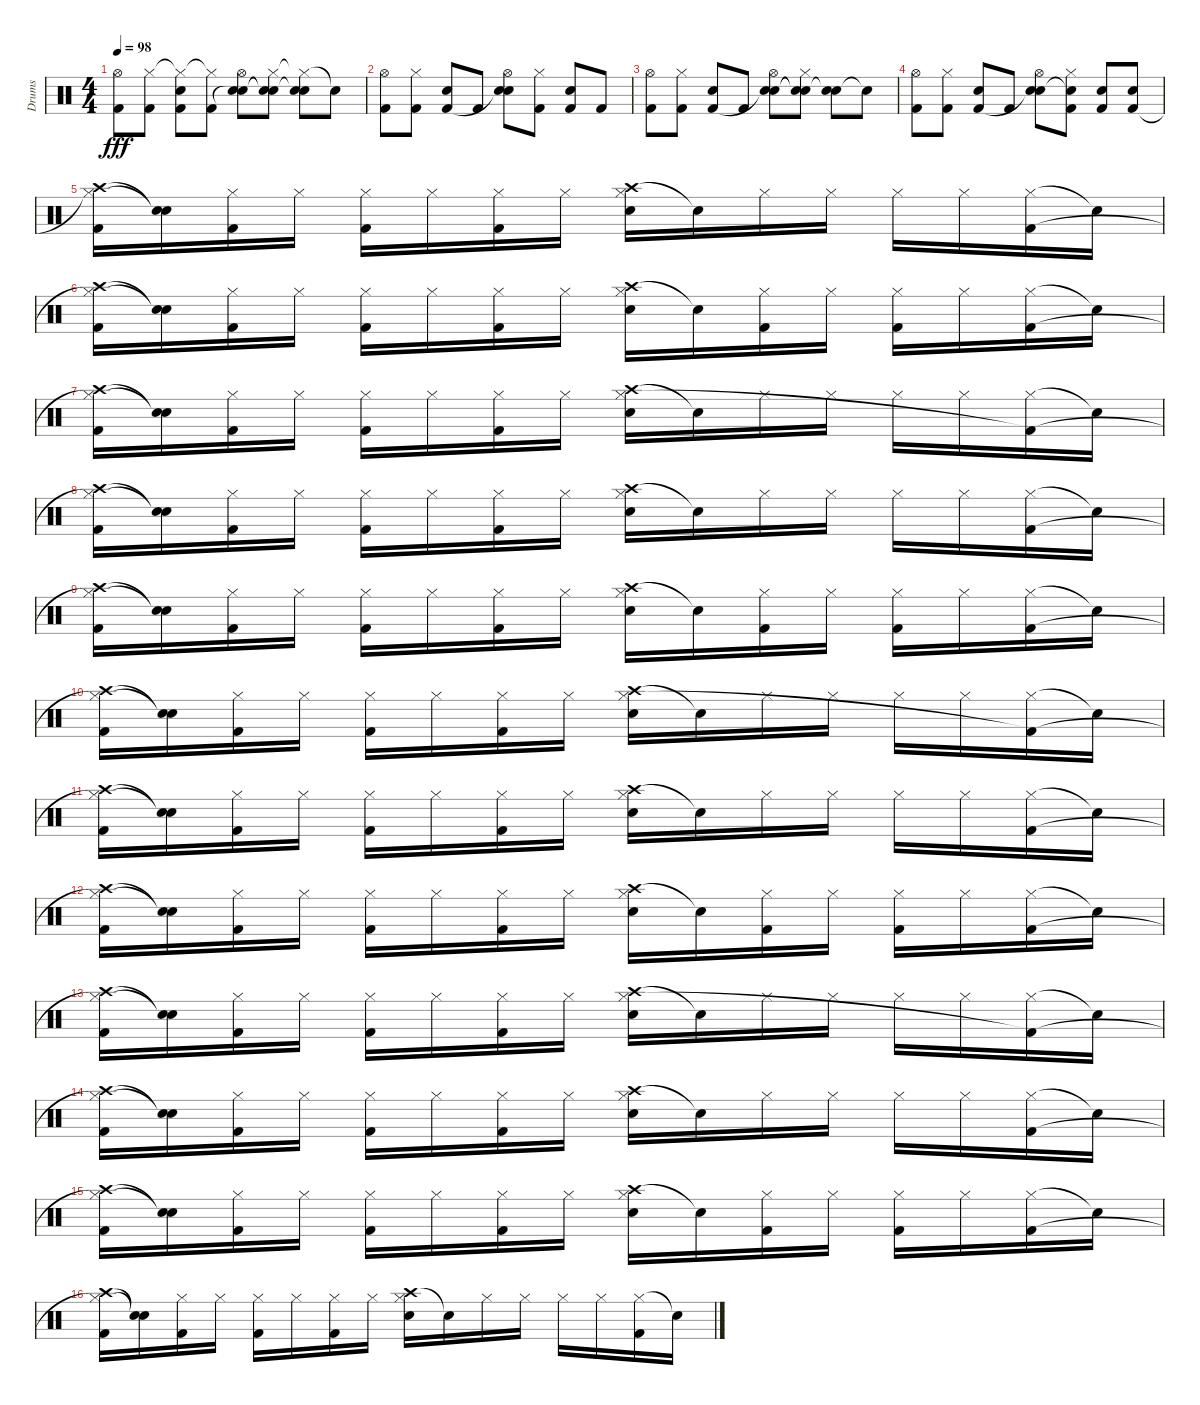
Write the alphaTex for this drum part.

\track ("Drums" "Drums") {instrument percussion}
\staff {score}
\articulation defaults
\ts (4 4)
\tempo 98
\clef neutral
\ks c
("Hi-Hat (open)" "Kick (hit) 2").8{dy fff} ("Hi-Hat (closed)" "Kick (hit) 2").8 ("Hi-Hat (closed)"{t} "Hand Clap (hit)" "Kick (hit) 2").8 ("Hi-Hat (closed)"{t} "Kick (hit) 2").8 ("Hi-Hat (open)" "Hand Clap (hit)"{t} "Electric Snare (hit)").8 ("Hi-Hat (closed)" "Hand Clap (hit)"{t} "Electric Snare (hit)"{t}).8 ("Hi-Hat (closed)"{t} "Hand Clap (hit)" "Snare (hit)"{t}).8 "Snare (hit)"{t}.8 |
("Hi-Hat (open)" "Kick (hit) 2").8 ("Hi-Hat (closed)" "Kick (hit) 2").8 ("Hand Clap (hit)" "Kick (hit) 2").8 "Kick (hit) 2".8 ("Hi-Hat (open)" "Hand Clap (hit)"{t} "Electric Snare (hit)").8 ("Hi-Hat (closed)" "Kick (hit) 2").8 ("Hand Clap (hit)" "Kick (hit) 2").8 "Kick (hit) 2".8 |
("Hi-Hat (open)" "Kick (hit) 2").8 ("Hi-Hat (closed)" "Kick (hit) 2").8 ("Hand Clap (hit)" "Kick (hit) 2").8 "Kick (hit) 2".8 ("Hi-Hat (open)" "Hand Clap (hit)"{t} "Electric Snare (hit)").8 ("Hi-Hat (closed)" "Hand Clap (hit)"{t} "Electric Snare (hit)"{t}).8 ("Hand Clap (hit)" "Snare (hit)"{t}).8 "Snare (hit)"{t}.8 |
("Hi-Hat (open)" "Kick (hit) 2").8 ("Hi-Hat (closed)" "Kick (hit) 2").8 ("Hand Clap (hit)" "Kick (hit) 2").8 "Kick (hit) 2".8 ("Hi-Hat (open)" "Hand Clap (hit)"{t} "Electric Snare (hit)").8 ("Hi-Hat (closed)" "Hand Clap (hit)"{t} "Kick (hit) 2").8 ("Hand Clap (hit)" "Kick (hit) 2").8 ("Hand Clap (hit)" "Kick (hit) 2").8 |
("Crash high (hit)" "Hi-Hat (closed)"{t} "Kick (hit) 2").16 ("Snare (hit)"{t} "Snare (hit)"{t}).16 ("Hi-Hat (closed)" "Kick (hit) 2").16 "Hi-Hat (closed)".16 ("Hi-Hat (closed)" "Kick (hit) 2").16 "Hi-Hat (closed)".16 ("Hi-Hat (closed)" "Kick (hit) 2").16 "Hi-Hat (closed)".16 ("Crash high (hit)" "Hi-Hat (closed)" "Electric Snare (hit)").16 "Snare (hit)"{t}.16 "Hi-Hat (closed)".16 "Hi-Hat (closed)".16 "Hi-Hat (closed)".16 "Hi-Hat (closed)".16 ("Hi-Hat (closed)" "Kick (hit) 2").16 "Snare (hit)"{t}.16 |
("Crash high (hit)" "Hi-Hat (closed)"{t} "Kick (hit) 2").16 ("Snare (hit)"{t} "Snare (hit)"{t}).16 ("Hi-Hat (closed)" "Kick (hit) 2").16 "Hi-Hat (closed)".16 ("Hi-Hat (closed)" "Kick (hit) 2").16 "Hi-Hat (closed)".16 ("Hi-Hat (closed)" "Kick (hit) 2").16 "Hi-Hat (closed)".16 ("Crash high (hit)" "Hi-Hat (closed)" "Electric Snare (hit)").16 "Snare (hit)"{t}.16 ("Hi-Hat (closed)" "Kick (hit) 2").16 "Hi-Hat (closed)".16 ("Hi-Hat (closed)" "Kick (hit) 2").16 "Hi-Hat (closed)".16 ("Hi-Hat (closed)" "Kick (hit) 2").16 "Snare (hit)"{t}.16 |
("Crash high (hit)" "Hi-Hat (closed)"{t} "Kick (hit) 2").16 ("Snare (hit)"{t} "Snare (hit)"{t}).16 ("Hi-Hat (closed)" "Kick (hit) 2").16 "Hi-Hat (closed)".16 ("Hi-Hat (closed)" "Kick (hit) 2").16 "Hi-Hat (closed)".16 ("Hi-Hat (closed)" "Kick (hit) 2").16 "Hi-Hat (closed)".16 ("Crash high (hit)" "Hi-Hat (closed)" "Electric Snare (hit)").16 "Snare (hit)"{t}.16 "Hi-Hat (closed)".16 "Hi-Hat (closed)".16 "Hi-Hat (closed)".16 "Hi-Hat (closed)".16 ("Hi-Hat (closed)" "Kick (hit) 2"{t}).16 "Snare (hit)"{t}.16 |
("Crash high (hit)" "Hi-Hat (closed)"{t} "Kick (hit) 2").16 ("Snare (hit)"{t} "Snare (hit)"{t}).16 ("Hi-Hat (closed)" "Kick (hit) 2").16 "Hi-Hat (closed)".16 ("Hi-Hat (closed)" "Kick (hit) 2").16 "Hi-Hat (closed)".16 ("Hi-Hat (closed)" "Kick (hit) 2").16 "Hi-Hat (closed)".16 ("Crash high (hit)" "Hi-Hat (closed)" "Electric Snare (hit)").16 "Snare (hit)"{t}.16 "Hi-Hat (closed)".16 "Hi-Hat (closed)".16 "Hi-Hat (closed)".16 "Hi-Hat (closed)".16 ("Hi-Hat (closed)" "Kick (hit) 2").16 "Snare (hit)"{t}.16 |
("Crash high (hit)" "Hi-Hat (closed)"{t} "Kick (hit) 2").16 ("Snare (hit)"{t} "Snare (hit)"{t}).16 ("Hi-Hat (closed)" "Kick (hit) 2").16 "Hi-Hat (closed)".16 ("Hi-Hat (closed)" "Kick (hit) 2").16 "Hi-Hat (closed)".16 ("Hi-Hat (closed)" "Kick (hit) 2").16 "Hi-Hat (closed)".16 ("Crash high (hit)" "Hi-Hat (closed)" "Electric Snare (hit)").16 "Snare (hit)"{t}.16 ("Hi-Hat (closed)" "Kick (hit) 2").16 "Hi-Hat (closed)".16 ("Hi-Hat (closed)" "Kick (hit) 2").16 "Hi-Hat (closed)".16 ("Hi-Hat (closed)" "Kick (hit) 2").16 "Snare (hit)"{t}.16 |
("Crash high (hit)" "Hi-Hat (closed)"{t} "Kick (hit) 2").16 ("Snare (hit)"{t} "Snare (hit)"{t}).16 ("Hi-Hat (closed)" "Kick (hit) 2").16 "Hi-Hat (closed)".16 ("Hi-Hat (closed)" "Kick (hit) 2").16 "Hi-Hat (closed)".16 ("Hi-Hat (closed)" "Kick (hit) 2").16 "Hi-Hat (closed)".16 ("Crash high (hit)" "Hi-Hat (closed)" "Electric Snare (hit)").16 "Snare (hit)"{t}.16 "Hi-Hat (closed)".16 "Hi-Hat (closed)".16 "Hi-Hat (closed)".16 "Hi-Hat (closed)".16 ("Hi-Hat (closed)" "Kick (hit) 2"{t}).16 "Snare (hit)"{t}.16 |
("Crash high (hit)" "Hi-Hat (closed)"{t} "Kick (hit) 2").16 ("Snare (hit)"{t} "Snare (hit)"{t}).16 ("Hi-Hat (closed)" "Kick (hit) 2").16 "Hi-Hat (closed)".16 ("Hi-Hat (closed)" "Kick (hit) 2").16 "Hi-Hat (closed)".16 ("Hi-Hat (closed)" "Kick (hit) 2").16 "Hi-Hat (closed)".16 ("Crash high (hit)" "Hi-Hat (closed)" "Electric Snare (hit)").16 "Snare (hit)"{t}.16 "Hi-Hat (closed)".16 "Hi-Hat (closed)".16 "Hi-Hat (closed)".16 "Hi-Hat (closed)".16 ("Hi-Hat (closed)" "Kick (hit) 2").16 "Snare (hit)"{t}.16 |
("Crash high (hit)" "Hi-Hat (closed)"{t} "Kick (hit) 2").16 ("Snare (hit)"{t} "Snare (hit)"{t}).16 ("Hi-Hat (closed)" "Kick (hit) 2").16 "Hi-Hat (closed)".16 ("Hi-Hat (closed)" "Kick (hit) 2").16 "Hi-Hat (closed)".16 ("Hi-Hat (closed)" "Kick (hit) 2").16 "Hi-Hat (closed)".16 ("Crash high (hit)" "Hi-Hat (closed)" "Electric Snare (hit)").16 "Snare (hit)"{t}.16 ("Hi-Hat (closed)" "Kick (hit) 2").16 "Hi-Hat (closed)".16 ("Hi-Hat (closed)" "Kick (hit) 2").16 "Hi-Hat (closed)".16 ("Hi-Hat (closed)" "Kick (hit) 2").16 "Snare (hit)"{t}.16 |
("Crash high (hit)" "Hi-Hat (closed)"{t} "Kick (hit) 2").16 ("Snare (hit)"{t} "Snare (hit)"{t}).16 ("Hi-Hat (closed)" "Kick (hit) 2").16 "Hi-Hat (closed)".16 ("Hi-Hat (closed)" "Kick (hit) 2").16 "Hi-Hat (closed)".16 ("Hi-Hat (closed)" "Kick (hit) 2").16 "Hi-Hat (closed)".16 ("Crash high (hit)" "Hi-Hat (closed)" "Electric Snare (hit)").16 "Snare (hit)"{t}.16 "Hi-Hat (closed)".16 "Hi-Hat (closed)".16 "Hi-Hat (closed)".16 "Hi-Hat (closed)".16 ("Hi-Hat (closed)" "Kick (hit) 2"{t}).16 "Snare (hit)"{t}.16 |
("Crash high (hit)" "Hi-Hat (closed)"{t} "Kick (hit) 2").16 ("Snare (hit)"{t} "Snare (hit)"{t}).16 ("Hi-Hat (closed)" "Kick (hit) 2").16 "Hi-Hat (closed)".16 ("Hi-Hat (closed)" "Kick (hit) 2").16 "Hi-Hat (closed)".16 ("Hi-Hat (closed)" "Kick (hit) 2").16 "Hi-Hat (closed)".16 ("Crash high (hit)" "Hi-Hat (closed)" "Electric Snare (hit)").16 "Snare (hit)"{t}.16 "Hi-Hat (closed)".16 "Hi-Hat (closed)".16 "Hi-Hat (closed)".16 "Hi-Hat (closed)".16 ("Hi-Hat (closed)" "Kick (hit) 2").16 "Snare (hit)"{t}.16 |
("Crash high (hit)" "Hi-Hat (closed)"{t} "Kick (hit) 2").16 ("Snare (hit)"{t} "Snare (hit)"{t}).16 ("Hi-Hat (closed)" "Kick (hit) 2").16 "Hi-Hat (closed)".16 ("Hi-Hat (closed)" "Kick (hit) 2").16 "Hi-Hat (closed)".16 ("Hi-Hat (closed)" "Kick (hit) 2").16 "Hi-Hat (closed)".16 ("Crash high (hit)" "Hi-Hat (closed)" "Electric Snare (hit)").16 "Snare (hit)"{t}.16 ("Hi-Hat (closed)" "Kick (hit) 2").16 "Hi-Hat (closed)".16 ("Hi-Hat (closed)" "Kick (hit) 2").16 "Hi-Hat (closed)".16 ("Hi-Hat (closed)" "Kick (hit) 2").16 "Snare (hit)"{t}.16 |
("Crash high (hit)" "Hi-Hat (closed)"{t} "Kick (hit) 2").16 ("Snare (hit)"{t} "Snare (hit)"{t}).16 ("Hi-Hat (closed)" "Kick (hit) 2").16 "Hi-Hat (closed)".16 ("Hi-Hat (closed)" "Kick (hit) 2").16 "Hi-Hat (closed)".16 ("Hi-Hat (closed)" "Kick (hit) 2").16 "Hi-Hat (closed)".16 ("Crash high (hit)" "Hi-Hat (closed)" "Electric Snare (hit)").16 "Snare (hit)"{t}.16 "Hi-Hat (closed)".16 "Hi-Hat (closed)".16 "Hi-Hat (closed)".16 "Hi-Hat (closed)".16 ("Hi-Hat (closed)" "Kick (hit) 2").16 "Snare (hit)"{t}.16
